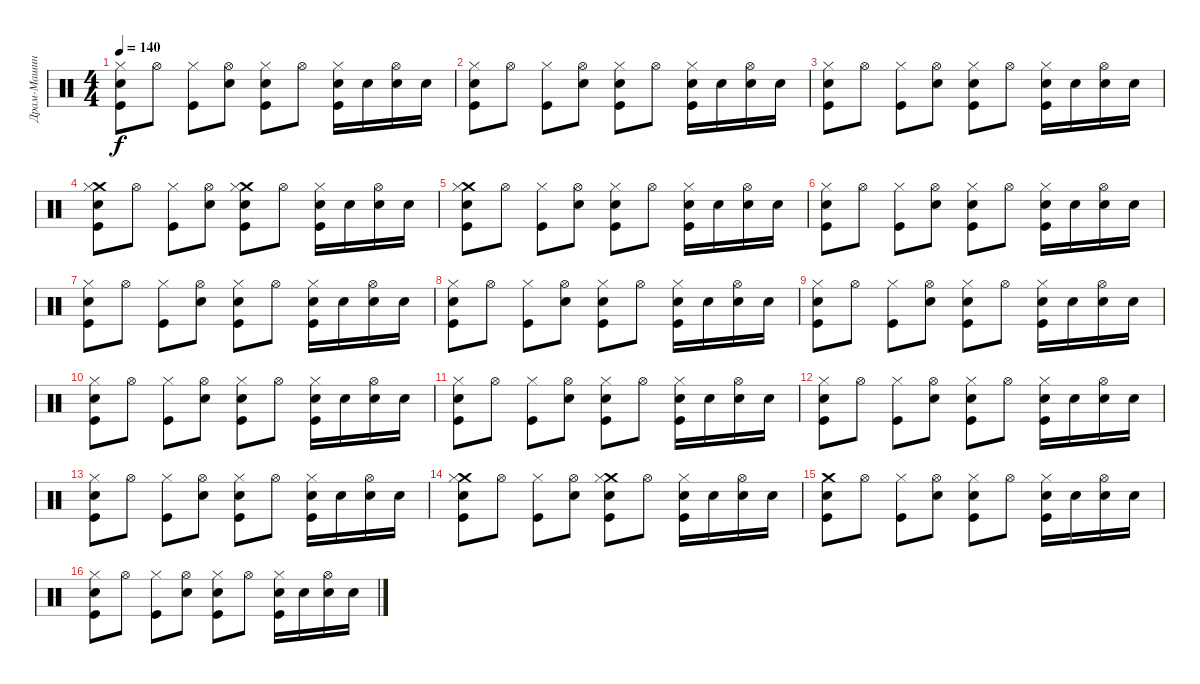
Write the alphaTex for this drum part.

\track ("Драм-Машина" "Драм-Машин") {instrument percussion}
\staff {score}
\articulation defaults
\ts (4 4)
\tempo 140
\clef neutral
\ks c
("Snare (hit) 2" "Hi-Hat (closed)" "Kick (hit)").8{dy f} "Hi-Hat (open)".8 ("Hi-Hat (closed)" "Kick (hit)").8 ("Snare (hit) 2" "Hi-Hat (open)").8 ("Snare (hit) 2" "Hi-Hat (closed)" "Kick (hit)").8 "Hi-Hat (open)".8 ("Snare (hit) 2" "Hi-Hat (closed)" "Kick (hit)").16 "Snare (hit) 2".16 ("Snare (hit) 2" "Hi-Hat (open)").16 "Snare (hit) 2".16 |
("Snare (hit) 2" "Hi-Hat (closed)" "Kick (hit)").8 "Hi-Hat (open)".8 ("Hi-Hat (closed)" "Kick (hit)").8 ("Snare (hit) 2" "Hi-Hat (open)").8 ("Snare (hit) 2" "Hi-Hat (closed)" "Kick (hit)").8 "Hi-Hat (open)".8 ("Snare (hit) 2" "Hi-Hat (closed)" "Kick (hit)").16 "Snare (hit) 2".16 ("Snare (hit) 2" "Hi-Hat (open)").16 "Snare (hit) 2".16 |
("Snare (hit) 2" "Hi-Hat (closed)" "Kick (hit)").8 "Hi-Hat (open)".8 ("Hi-Hat (closed)" "Kick (hit)").8 ("Snare (hit) 2" "Hi-Hat (open)").8 ("Snare (hit) 2" "Hi-Hat (closed)" "Kick (hit)").8 "Hi-Hat (open)".8 ("Snare (hit) 2" "Hi-Hat (closed)" "Kick (hit)").16 "Snare (hit) 2".16 ("Snare (hit) 2" "Hi-Hat (open)").16 "Snare (hit) 2".16 |
("Crash medium (hit)" "Snare (hit) 2" "Hi-Hat (closed)" "Kick (hit)").8 "Hi-Hat (open)".8 ("Hi-Hat (closed)" "Kick (hit)").8 ("Snare (hit) 2" "Hi-Hat (open)").8 ("Crash medium (hit)" "Snare (hit) 2" "Hi-Hat (closed)" "Kick (hit)").8 "Hi-Hat (open)".8 ("Snare (hit) 2" "Hi-Hat (closed)" "Kick (hit)").16 "Snare (hit) 2".16 ("Snare (hit) 2" "Hi-Hat (open)").16 "Snare (hit) 2".16 |
("Crash medium (hit)" "Snare (hit) 2" "Hi-Hat (closed)" "Kick (hit)").8 "Hi-Hat (open)".8 ("Hi-Hat (closed)" "Kick (hit)").8 ("Snare (hit) 2" "Hi-Hat (open)").8 ("Snare (hit) 2" "Hi-Hat (closed)" "Kick (hit)").8 "Hi-Hat (open)".8 ("Snare (hit) 2" "Hi-Hat (closed)" "Kick (hit)").16 "Snare (hit) 2".16 ("Snare (hit) 2" "Hi-Hat (open)").16 "Snare (hit) 2".16 |
("Snare (hit) 2" "Hi-Hat (closed)" "Kick (hit)").8 "Hi-Hat (open)".8 ("Hi-Hat (closed)" "Kick (hit)").8 ("Snare (hit) 2" "Hi-Hat (open)").8 ("Snare (hit) 2" "Hi-Hat (closed)" "Kick (hit)").8 "Hi-Hat (open)".8 ("Snare (hit) 2" "Hi-Hat (closed)" "Kick (hit)").16 "Snare (hit) 2".16 ("Snare (hit) 2" "Hi-Hat (open)").16 "Snare (hit) 2".16 |
("Snare (hit) 2" "Hi-Hat (closed)" "Kick (hit)").8 "Hi-Hat (open)".8 ("Hi-Hat (closed)" "Kick (hit)").8 ("Snare (hit) 2" "Hi-Hat (open)").8 ("Snare (hit) 2" "Hi-Hat (closed)" "Kick (hit)").8 "Hi-Hat (open)".8 ("Snare (hit) 2" "Hi-Hat (closed)" "Kick (hit)").16 "Snare (hit) 2".16 ("Snare (hit) 2" "Hi-Hat (open)").16 "Snare (hit) 2".16 |
("Snare (hit) 2" "Hi-Hat (closed)" "Kick (hit)").8 "Hi-Hat (open)".8 ("Hi-Hat (closed)" "Kick (hit)").8 ("Snare (hit) 2" "Hi-Hat (open)").8 ("Snare (hit) 2" "Hi-Hat (closed)" "Kick (hit)").8 "Hi-Hat (open)".8 ("Snare (hit) 2" "Hi-Hat (closed)" "Kick (hit)").16 "Snare (hit) 2".16 ("Snare (hit) 2" "Hi-Hat (open)").16 "Snare (hit) 2".16 |
("Snare (hit) 2" "Hi-Hat (closed)" "Kick (hit)").8 "Hi-Hat (open)".8 ("Hi-Hat (closed)" "Kick (hit)").8 ("Snare (hit) 2" "Hi-Hat (open)").8 ("Snare (hit) 2" "Hi-Hat (closed)" "Kick (hit)").8 "Hi-Hat (open)".8 ("Snare (hit) 2" "Hi-Hat (closed)" "Kick (hit)").16 "Snare (hit) 2".16 ("Snare (hit) 2" "Hi-Hat (open)").16 "Snare (hit) 2".16 |
("Snare (hit) 2" "Hi-Hat (closed)" "Kick (hit)").8 "Hi-Hat (open)".8 ("Hi-Hat (closed)" "Kick (hit)").8 ("Snare (hit) 2" "Hi-Hat (open)").8 ("Snare (hit) 2" "Hi-Hat (closed)" "Kick (hit)").8 "Hi-Hat (open)".8 ("Snare (hit) 2" "Hi-Hat (closed)" "Kick (hit)").16 "Snare (hit) 2".16 ("Snare (hit) 2" "Hi-Hat (open)").16 "Snare (hit) 2".16 |
("Snare (hit) 2" "Hi-Hat (closed)" "Kick (hit)").8 "Hi-Hat (open)".8 ("Hi-Hat (closed)" "Kick (hit)").8 ("Snare (hit) 2" "Hi-Hat (open)").8 ("Snare (hit) 2" "Hi-Hat (closed)" "Kick (hit)").8 "Hi-Hat (open)".8 ("Snare (hit) 2" "Hi-Hat (closed)" "Kick (hit)").16 "Snare (hit) 2".16 ("Snare (hit) 2" "Hi-Hat (open)").16 "Snare (hit) 2".16 |
("Snare (hit) 2" "Hi-Hat (closed)" "Kick (hit)").8 "Hi-Hat (open)".8 ("Hi-Hat (closed)" "Kick (hit)").8 ("Snare (hit) 2" "Hi-Hat (open)").8 ("Snare (hit) 2" "Hi-Hat (closed)" "Kick (hit)").8 "Hi-Hat (open)".8 ("Snare (hit) 2" "Hi-Hat (closed)" "Kick (hit)").16 "Snare (hit) 2".16 ("Snare (hit) 2" "Hi-Hat (open)").16 "Snare (hit) 2".16 |
("Snare (hit) 2" "Hi-Hat (closed)" "Kick (hit)").8 "Hi-Hat (open)".8 ("Hi-Hat (closed)" "Kick (hit)").8 ("Snare (hit) 2" "Hi-Hat (open)").8 ("Snare (hit) 2" "Hi-Hat (closed)" "Kick (hit)").8 "Hi-Hat (open)".8 ("Snare (hit) 2" "Hi-Hat (closed)" "Kick (hit)").16 "Snare (hit) 2".16 ("Snare (hit) 2" "Hi-Hat (open)").16 "Snare (hit) 2".16 |
("Crash medium (hit)" "Snare (hit) 2" "Hi-Hat (closed)" "Kick (hit)").8 "Hi-Hat (open)".8 ("Hi-Hat (closed)" "Kick (hit)").8 ("Snare (hit) 2" "Hi-Hat (open)").8 ("Crash medium (hit)" "Snare (hit) 2" "Hi-Hat (closed)" "Kick (hit)").8 "Hi-Hat (open)".8 ("Snare (hit) 2" "Hi-Hat (closed)" "Kick (hit)").16 "Snare (hit) 2".16 ("Snare (hit) 2" "Hi-Hat (open)").16 "Snare (hit) 2".16 |
("Snare (hit) 2" "Crash medium (hit)" "Kick (hit)").8 "Hi-Hat (open)".8 ("Hi-Hat (closed)" "Kick (hit)").8 ("Snare (hit) 2" "Hi-Hat (open)").8 ("Snare (hit) 2" "Hi-Hat (closed)" "Kick (hit)").8 "Hi-Hat (open)".8 ("Snare (hit) 2" "Hi-Hat (closed)" "Kick (hit)").16 "Snare (hit) 2".16 ("Snare (hit) 2" "Hi-Hat (open)").16 "Snare (hit) 2".16 |
("Snare (hit) 2" "Hi-Hat (closed)" "Kick (hit)").8 "Hi-Hat (open)".8 ("Hi-Hat (closed)" "Kick (hit)").8 ("Snare (hit) 2" "Hi-Hat (open)").8 ("Snare (hit) 2" "Hi-Hat (closed)" "Kick (hit)").8 "Hi-Hat (open)".8 ("Snare (hit) 2" "Hi-Hat (closed)" "Kick (hit)").16 "Snare (hit) 2".16 ("Snare (hit) 2" "Hi-Hat (open)").16 "Snare (hit) 2".16
